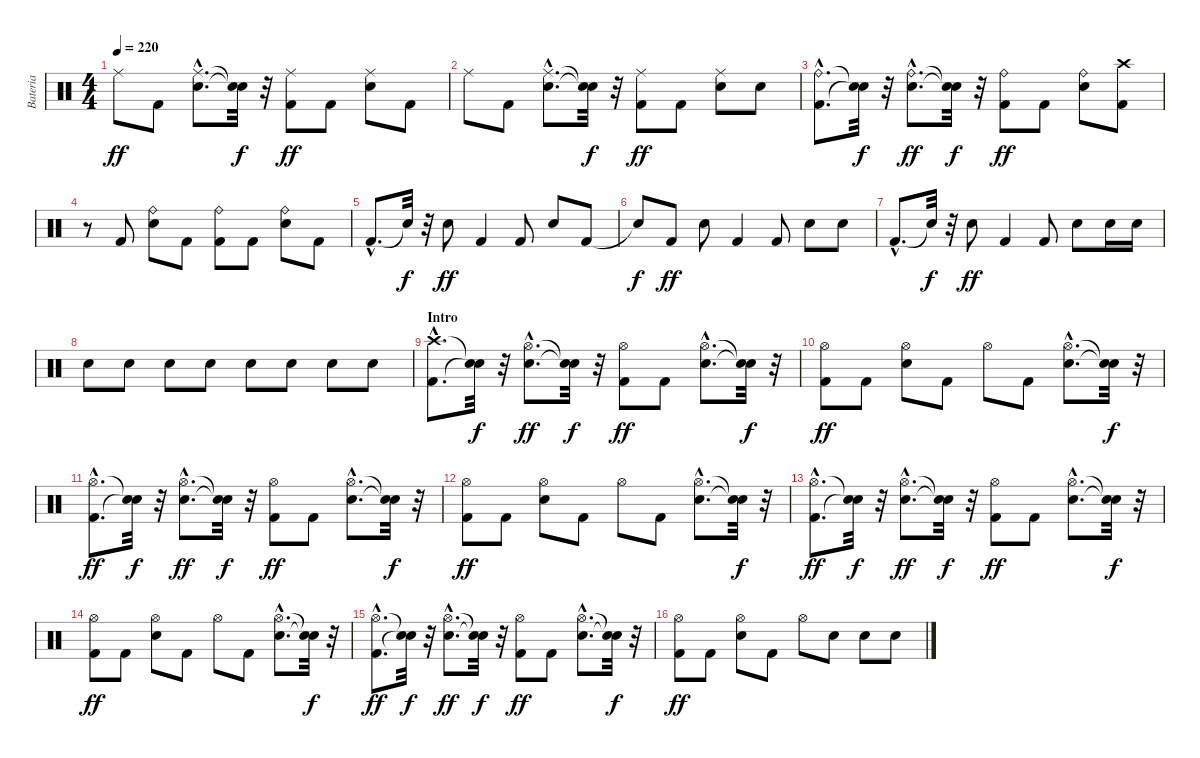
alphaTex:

\track ("Bateria" "Bateria") {instrument percussion}
\staff {score}
\articulation defaults
\ts (4 4)
\tempo 220
\clef neutral
\ks c "Ride (middle)".8{dy ff} "Kick (hit) 2".8
("Electric Snare (hit)"{hac} "Ride (middle)"{hac}).8{d} ("Snare (hit)"{t} "Snare (hit)"{t}).32{dy f} r.32 ("Kick (hit) 2" "Ride (middle)").8{dy ff} "Kick (hit) 2".8 ("Electric Snare (hit)" "Ride (middle)").8 "Kick (hit) 2".8 |
"Ride (middle)".8 "Kick (hit) 2".8 ("Electric Snare (hit)"{hac} "Ride (middle)"{hac}).8{d} ("Snare (hit)"{t} "Snare (hit)"{t}).32{dy f} r.32 ("Kick (hit) 2" "Ride (middle)").8{dy ff} "Kick (hit) 2".8 ("Electric Snare (hit)" "Ride (middle)").8 "Electric Snare (hit)".8 |
("Kick (hit) 2"{hac} "Ride (bell)"{hac}).8{d} ("Snare (hit)"{t} "Snare (hit)"{t}).32{dy f} r.32 ("Electric Snare (hit)"{hac} "Ride (bell)"{hac}).8{d dy ff} ("Snare (hit)"{t} "Snare (hit)"{t}).32{dy f} r.32 ("Kick (hit) 2" "Ride (bell)").8{dy ff} "Kick (hit) 2".8 ("Electric Snare (hit)" "Ride (bell)").8 ("Kick (hit) 2" "Crash high (hit)").8 |
r.8 "Kick (hit) 2".8 ("Electric Snare (hit)" "Ride (bell)").8 "Kick (hit) 2".8 ("Kick (hit) 2" "Ride (bell)").8 "Kick (hit) 2".8 ("Electric Snare (hit)" "Ride (bell)").8 "Kick (hit) 2".8 |
"Kick (hit) 2"{hac}.8{d} "Snare (hit)"{t}.32{dy f} r.32 "Electric Snare (hit)".8{dy ff} "Kick (hit) 2".4 "Kick (hit) 2".8 "Electric Snare (hit)".8 "Kick (hit) 2".8 |
"Snare (hit)"{t}.8{dy f} "Kick (hit) 2".8{dy ff} "Electric Snare (hit)".8 "Kick (hit) 2".4 "Kick (hit) 2".8 "Electric Snare (hit)".8 "Electric Snare (hit)".8 |
"Kick (hit) 2"{hac}.8{d} "Snare (hit)"{t}.32{dy f} r.32 "Electric Snare (hit)".8{dy ff} "Kick (hit) 2".4 "Kick (hit) 2".8 "Electric Snare (hit)".8 "Electric Snare (hit)".16 "Electric Snare (hit)".16 |
"Electric Snare (hit)".8 "Electric Snare (hit)".8 "Electric Snare (hit)".8 "Electric Snare (hit)".8 "Electric Snare (hit)".8 "Electric Snare (hit)".8 "Electric Snare (hit)".8 "Electric Snare (hit)".8 |
\section ("" "Intro")
("Kick (hit) 2"{hac} "Crash high (hit)"{hac}).8{d} ("Snare (hit)"{t} "Snare (hit)"{t}).32{dy f} r.32 ("Electric Snare (hit)"{hac} "Hi-Hat (open)"{hac}).8{d dy ff} ("Snare (hit)"{t} "Snare (hit)"{t}).32{dy f} r.32 ("Kick (hit) 2" "Hi-Hat (open)").8{dy ff} "Kick (hit) 2".8 ("Electric Snare (hit)"{hac} "Hi-Hat (open)"{hac}).8{d} ("Snare (hit)"{t} "Snare (hit)"{t}).32{dy f} r.32 |
("Kick (hit) 2" "Hi-Hat (open)").8{dy ff} "Kick (hit) 2".8 ("Electric Snare (hit)" "Hi-Hat (open)").8 "Kick (hit) 2".8 "Hi-Hat (open)".8 "Kick (hit) 2".8 ("Electric Snare (hit)"{hac} "Hi-Hat (open)"{hac}).8{d} ("Snare (hit)"{t} "Snare (hit)"{t}).32{dy f} r.32 |
("Kick (hit) 2"{hac} "Hi-Hat (open)"{hac}).8{d dy ff} ("Snare (hit)"{t} "Snare (hit)"{t}).32{dy f} r.32 ("Electric Snare (hit)"{hac} "Hi-Hat (open)"{hac}).8{d dy ff} ("Snare (hit)"{t} "Snare (hit)"{t}).32{dy f} r.32 ("Kick (hit) 2" "Hi-Hat (open)").8{dy ff} "Kick (hit) 2".8 ("Electric Snare (hit)"{hac} "Hi-Hat (open)"{hac}).8{d} ("Snare (hit)"{t} "Snare (hit)"{t}).32{dy f} r.32 |
("Kick (hit) 2" "Hi-Hat (open)").8{dy ff} "Kick (hit) 2".8 ("Electric Snare (hit)" "Hi-Hat (open)").8 "Kick (hit) 2".8 "Hi-Hat (open)".8 "Kick (hit) 2".8 ("Electric Snare (hit)"{hac} "Hi-Hat (open)"{hac}).8{d} ("Snare (hit)"{t} "Snare (hit)"{t}).32{dy f} r.32 |
("Kick (hit) 2"{hac} "Hi-Hat (open)"{hac}).8{d dy ff} ("Snare (hit)"{t} "Snare (hit)"{t}).32{dy f} r.32 ("Electric Snare (hit)"{hac} "Hi-Hat (open)"{hac}).8{d dy ff} ("Snare (hit)"{t} "Snare (hit)"{t}).32{dy f} r.32 ("Kick (hit) 2" "Hi-Hat (open)").8{dy ff} "Kick (hit) 2".8 ("Electric Snare (hit)"{hac} "Hi-Hat (open)"{hac}).8{d} ("Snare (hit)"{t} "Snare (hit)"{t}).32{dy f} r.32 |
("Kick (hit) 2" "Hi-Hat (open)").8{dy ff} "Kick (hit) 2".8 ("Electric Snare (hit)" "Hi-Hat (open)").8 "Kick (hit) 2".8 "Hi-Hat (open)".8 "Kick (hit) 2".8 ("Electric Snare (hit)"{hac} "Hi-Hat (open)"{hac}).8{d} ("Snare (hit)"{t} "Snare (hit)"{t}).32{dy f} r.32 |
("Kick (hit) 2"{hac} "Hi-Hat (open)"{hac}).8{d dy ff} ("Snare (hit)"{t} "Snare (hit)"{t}).32{dy f} r.32 ("Electric Snare (hit)"{hac} "Hi-Hat (open)"{hac}).8{d dy ff} ("Snare (hit)"{t} "Snare (hit)"{t}).32{dy f} r.32 ("Kick (hit) 2" "Hi-Hat (open)").8{dy ff} "Kick (hit) 2".8 ("Electric Snare (hit)"{hac} "Hi-Hat (open)"{hac}).8{d} ("Snare (hit)"{t} "Snare (hit)"{t}).32{dy f} r.32 |
("Kick (hit) 2" "Hi-Hat (open)").8{dy ff} "Kick (hit) 2".8 ("Electric Snare (hit)" "Hi-Hat (open)").8 "Kick (hit) 2".8 "Hi-Hat (open)".8 "Electric Snare (hit)".8 "Electric Snare (hit)".8 "Electric Snare (hit)".8
